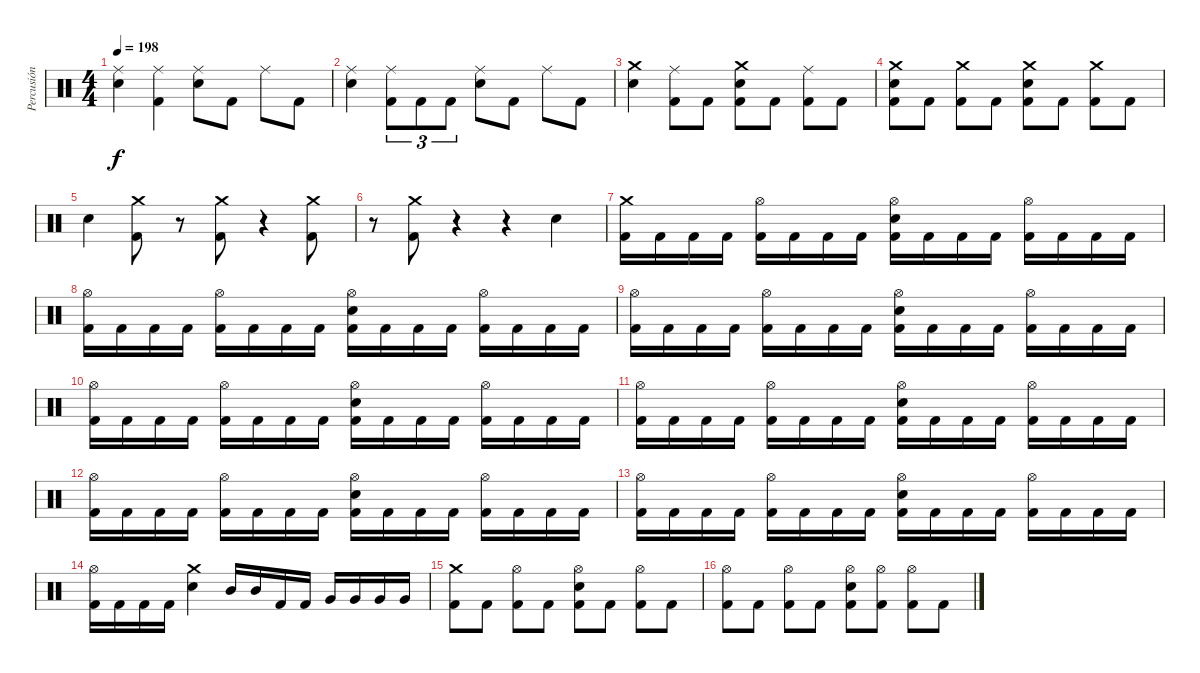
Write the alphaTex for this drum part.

\track ("Percusión" "Percusión") {instrument percussion}
\staff {score}
\articulation defaults
\ts (4 4)
\tempo 198
\clef neutral
\ks c
("Ride (middle)" "Electric Snare (hit)").4{dy f} ("Ride (middle)" "Kick (hit) 2").4 ("Ride (middle)" "Electric Snare (hit)").8 "Kick (hit) 2".8 "Ride (middle)".8 "Kick (hit) 2".8 |
("Ride (middle)" "Electric Snare (hit)").4 ("Ride (middle)" "Kick (hit) 2").8{tu (3 2)} "Kick (hit) 2".8{tu (3 2)} "Kick (hit) 2".8{tu (3 2)} ("Ride (middle)" "Electric Snare (hit)").8 "Kick (hit) 2".8 "Ride (middle)".8 "Kick (hit) 2".8 |
("Crash medium (hit)" "Electric Snare (hit)").4 ("Ride (middle)" "Kick (hit) 2").8 "Kick (hit) 2".8 ("Crash medium (hit)" "Electric Snare (hit)" "Kick (hit) 2").8 "Kick (hit) 2".8 ("Ride (middle)" "Kick (hit) 2").8 "Kick (hit) 2".8 |
("Crash medium (hit)" "Electric Snare (hit)" "Kick (hit) 2").8 "Kick (hit) 2".8 ("Crash medium (hit)" "Kick (hit) 2").8 "Kick (hit) 2".8 ("Crash medium (hit)" "Electric Snare (hit)" "Kick (hit) 2").8 "Kick (hit) 2".8 ("Crash medium (hit)" "Kick (hit) 2").8 "Kick (hit) 2".8 |
"Electric Snare (hit)".4 ("Crash medium (hit)" "Kick (hit) 2").8{volume 16} r.8{volume 0} ("Crash medium (hit)" "Kick (hit) 2").8{volume 16} r.4{volume 0} ("Crash medium (hit)" "Kick (hit) 2").8{volume 16} |
r.8{volume 0} ("Crash medium (hit)" "Kick (hit) 2").8{volume 16} r.4{volume 0} r.4 "Electric Snare (hit)".4{volume 16} |
("Crash medium (hit)" "Kick (hit) 2").16 "Kick (hit) 2".16 "Kick (hit) 2".16 "Kick (hit) 2".16 ("Hi-Hat (open)" "Kick (hit) 2").16 "Kick (hit) 2".16 "Kick (hit) 2".16 "Kick (hit) 2".16 ("Hi-Hat (open)" "Electric Snare (hit)" "Kick (hit) 2").16 "Kick (hit) 2".16 "Kick (hit) 2".16 "Kick (hit) 2".16 ("Hi-Hat (open)" "Kick (hit) 2").16 "Kick (hit) 2".16 "Kick (hit) 2".16 "Kick (hit) 2".16 |
("Hi-Hat (open)" "Kick (hit) 2").16 "Kick (hit) 2".16 "Kick (hit) 2".16 "Kick (hit) 2".16 ("Hi-Hat (open)" "Kick (hit) 2").16 "Kick (hit) 2".16 "Kick (hit) 2".16 "Kick (hit) 2".16 ("Hi-Hat (open)" "Electric Snare (hit)" "Kick (hit) 2").16 "Kick (hit) 2".16 "Kick (hit) 2".16 "Kick (hit) 2".16 ("Hi-Hat (open)" "Kick (hit) 2").16 "Kick (hit) 2".16 "Kick (hit) 2".16 "Kick (hit) 2".16 |
("Hi-Hat (open)" "Kick (hit) 2").16 "Kick (hit) 2".16 "Kick (hit) 2".16 "Kick (hit) 2".16 ("Hi-Hat (open)" "Kick (hit) 2").16 "Kick (hit) 2".16 "Kick (hit) 2".16 "Kick (hit) 2".16 ("Hi-Hat (open)" "Electric Snare (hit)" "Kick (hit) 2").16 "Kick (hit) 2".16 "Kick (hit) 2".16 "Kick (hit) 2".16 ("Hi-Hat (open)" "Kick (hit) 2").16 "Kick (hit) 2".16 "Kick (hit) 2".16 "Kick (hit) 2".16 |
("Hi-Hat (open)" "Kick (hit) 2").16 "Kick (hit) 2".16 "Kick (hit) 2".16 "Kick (hit) 2".16 ("Hi-Hat (open)" "Kick (hit) 2").16 "Kick (hit) 2".16 "Kick (hit) 2".16 "Kick (hit) 2".16 ("Hi-Hat (open)" "Electric Snare (hit)" "Kick (hit) 2").16 "Kick (hit) 2".16 "Kick (hit) 2".16 "Kick (hit) 2".16 ("Hi-Hat (open)" "Kick (hit) 2").16 "Kick (hit) 2".16 "Kick (hit) 2".16 "Kick (hit) 2".16 |
("Hi-Hat (open)" "Kick (hit) 2").16 "Kick (hit) 2".16 "Kick (hit) 2".16 "Kick (hit) 2".16 ("Hi-Hat (open)" "Kick (hit) 2").16 "Kick (hit) 2".16 "Kick (hit) 2".16 "Kick (hit) 2".16 ("Hi-Hat (open)" "Electric Snare (hit)" "Kick (hit) 2").16 "Kick (hit) 2".16 "Kick (hit) 2".16 "Kick (hit) 2".16 ("Hi-Hat (open)" "Kick (hit) 2").16 "Kick (hit) 2".16 "Kick (hit) 2".16 "Kick (hit) 2".16 |
("Hi-Hat (open)" "Kick (hit) 2").16 "Kick (hit) 2".16 "Kick (hit) 2".16 "Kick (hit) 2".16 ("Hi-Hat (open)" "Kick (hit) 2").16 "Kick (hit) 2".16 "Kick (hit) 2".16 "Kick (hit) 2".16 ("Hi-Hat (open)" "Electric Snare (hit)" "Kick (hit) 2").16 "Kick (hit) 2".16 "Kick (hit) 2".16 "Kick (hit) 2".16 ("Hi-Hat (open)" "Kick (hit) 2").16 "Kick (hit) 2".16 "Kick (hit) 2".16 "Kick (hit) 2".16 |
("Hi-Hat (open)" "Kick (hit) 2").16 "Kick (hit) 2".16 "Kick (hit) 2".16 "Kick (hit) 2".16 ("Hi-Hat (open)" "Kick (hit) 2").16 "Kick (hit) 2".16 "Kick (hit) 2".16 "Kick (hit) 2".16 ("Hi-Hat (open)" "Electric Snare (hit)" "Kick (hit) 2").16 "Kick (hit) 2".16 "Kick (hit) 2".16 "Kick (hit) 2".16 ("Hi-Hat (open)" "Kick (hit) 2").16 "Kick (hit) 2".16 "Kick (hit) 2".16 "Kick (hit) 2".16 |
("Hi-Hat (open)" "Kick (hit) 2").16 "Kick (hit) 2".16 "Kick (hit) 2".16 "Kick (hit) 2".16 ("Crash medium (hit)" "Electric Snare (hit)").4 "Mid Tom (hit)".16 "Mid Tom (hit)".16 "Kick (hit) 2".16 "Kick (hit) 2".16 "Very Low Tom (hit)".16 "Very Low Tom (hit)".16 "Very Low Tom (hit)".16 "Very Low Tom (hit)".16 |
("Crash medium (hit)" "Kick (hit) 2").8 "Kick (hit) 2".8 ("Hi-Hat (open)" "Kick (hit) 2").8 "Kick (hit) 2".8 ("Hi-Hat (open)" "Electric Snare (hit)" "Kick (hit) 2").8 "Kick (hit) 2".8 ("Hi-Hat (open)" "Kick (hit) 2").8 "Kick (hit) 2".8 |
("Hi-Hat (open)" "Kick (hit) 2").8 "Kick (hit) 2".8 ("Hi-Hat (open)" "Kick (hit) 2").8 "Kick (hit) 2".8 ("Hi-Hat (open)" "Electric Snare (hit)" "Kick (hit) 2").8 ("Hi-Hat (open)" "Kick (hit) 2").8 ("Hi-Hat (open)" "Kick (hit) 2").8 "Kick (hit) 2".8
